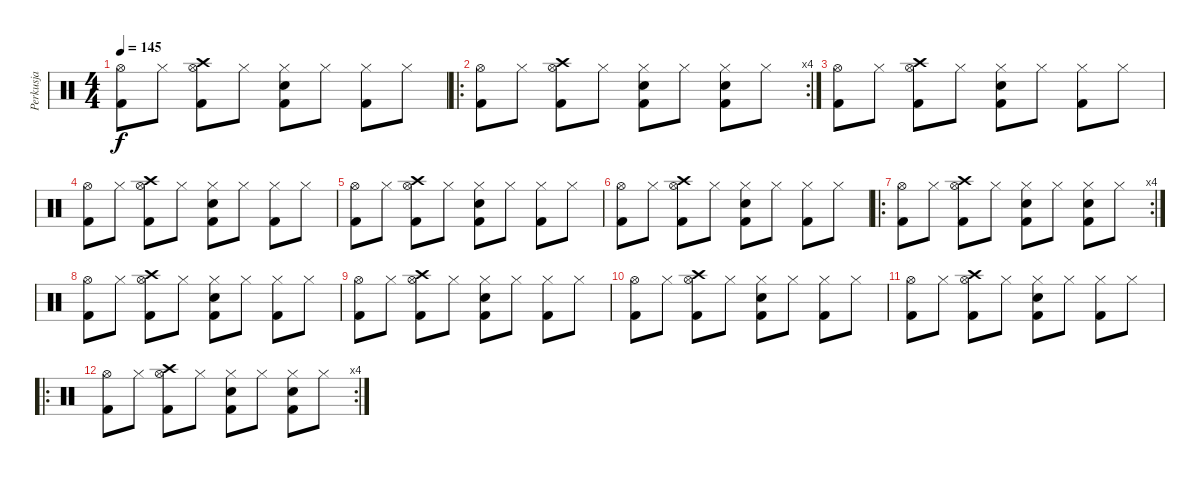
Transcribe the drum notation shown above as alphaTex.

\track ("Perkusja" "Perkusja") {instrument percussion}
\staff {score}
\articulation defaults
\ts (4 4)
\tempo 145
\clef neutral
\ks c
("Hi-Hat (open)" "Kick (hit) 2").8{dy f} "Hi-Hat (closed)".8 ("Hi-Hat (open)" "Crash high (hit)" "Kick (hit) 2").8 "Hi-Hat (closed)".8 ("Hi-Hat (closed)" "Electric Snare (hit)" "Kick (hit) 2").8 "Hi-Hat (closed)".8 ("Hi-Hat (closed)" "Kick (hit) 2").8 "Hi-Hat (closed)".8 |
\ro
\rc 4
("Hi-Hat (open)" "Kick (hit) 2").8 "Hi-Hat (closed)".8 ("Hi-Hat (open)" "Crash high (hit)" "Kick (hit) 2").8 "Hi-Hat (closed)".8 ("Hi-Hat (closed)" "Electric Snare (hit)" "Kick (hit) 2").8 "Hi-Hat (closed)".8 ("Hi-Hat (closed)" "Electric Snare (hit)" "Kick (hit) 2").8 "Hi-Hat (closed)".8 |
("Hi-Hat (open)" "Kick (hit) 2").8 "Hi-Hat (closed)".8 ("Hi-Hat (open)" "Crash high (hit)" "Kick (hit) 2").8 "Hi-Hat (closed)".8 ("Hi-Hat (closed)" "Electric Snare (hit)" "Kick (hit) 2").8 "Hi-Hat (closed)".8 ("Hi-Hat (closed)" "Kick (hit) 2").8 "Hi-Hat (closed)".8 |
("Hi-Hat (open)" "Kick (hit) 2").8 "Hi-Hat (closed)".8 ("Hi-Hat (open)" "Crash high (hit)" "Kick (hit) 2").8 "Hi-Hat (closed)".8 ("Hi-Hat (closed)" "Electric Snare (hit)" "Kick (hit) 2").8 "Hi-Hat (closed)".8 ("Hi-Hat (closed)" "Kick (hit) 2").8 "Hi-Hat (closed)".8 |
("Hi-Hat (open)" "Kick (hit) 2").8 "Hi-Hat (closed)".8 ("Hi-Hat (open)" "Crash high (hit)" "Kick (hit) 2").8 "Hi-Hat (closed)".8 ("Hi-Hat (closed)" "Electric Snare (hit)" "Kick (hit) 2").8 "Hi-Hat (closed)".8 ("Hi-Hat (closed)" "Kick (hit) 2").8 "Hi-Hat (closed)".8 |
("Hi-Hat (open)" "Kick (hit) 2").8 "Hi-Hat (closed)".8 ("Hi-Hat (open)" "Crash high (hit)" "Kick (hit) 2").8 "Hi-Hat (closed)".8 ("Hi-Hat (closed)" "Electric Snare (hit)" "Kick (hit) 2").8 "Hi-Hat (closed)".8 ("Hi-Hat (closed)" "Kick (hit) 2").8 "Hi-Hat (closed)".8 |
\ro
\rc 4
("Hi-Hat (open)" "Kick (hit) 2").8 "Hi-Hat (closed)".8 ("Hi-Hat (open)" "Crash high (hit)" "Kick (hit) 2").8 "Hi-Hat (closed)".8 ("Hi-Hat (closed)" "Electric Snare (hit)" "Kick (hit) 2").8 "Hi-Hat (closed)".8 ("Hi-Hat (closed)" "Electric Snare (hit)" "Kick (hit) 2").8 "Hi-Hat (closed)".8 |
("Hi-Hat (open)" "Kick (hit) 2").8 "Hi-Hat (closed)".8 ("Hi-Hat (open)" "Crash high (hit)" "Kick (hit) 2").8 "Hi-Hat (closed)".8 ("Hi-Hat (closed)" "Electric Snare (hit)" "Kick (hit) 2").8 "Hi-Hat (closed)".8 ("Hi-Hat (closed)" "Kick (hit) 2").8 "Hi-Hat (closed)".8 |
("Hi-Hat (open)" "Kick (hit) 2").8 "Hi-Hat (closed)".8 ("Hi-Hat (open)" "Crash high (hit)" "Kick (hit) 2").8 "Hi-Hat (closed)".8 ("Hi-Hat (closed)" "Electric Snare (hit)" "Kick (hit) 2").8 "Hi-Hat (closed)".8 ("Hi-Hat (closed)" "Kick (hit) 2").8 "Hi-Hat (closed)".8 |
("Hi-Hat (open)" "Kick (hit) 2").8 "Hi-Hat (closed)".8 ("Hi-Hat (open)" "Crash high (hit)" "Kick (hit) 2").8 "Hi-Hat (closed)".8 ("Hi-Hat (closed)" "Electric Snare (hit)" "Kick (hit) 2").8 "Hi-Hat (closed)".8 ("Hi-Hat (closed)" "Kick (hit) 2").8 "Hi-Hat (closed)".8 |
("Hi-Hat (open)" "Kick (hit) 2").8 "Hi-Hat (closed)".8 ("Hi-Hat (open)" "Crash high (hit)" "Kick (hit) 2").8 "Hi-Hat (closed)".8 ("Hi-Hat (closed)" "Electric Snare (hit)" "Kick (hit) 2").8 "Hi-Hat (closed)".8 ("Hi-Hat (closed)" "Kick (hit) 2").8 "Hi-Hat (closed)".8 |
\ro
\rc 4
("Hi-Hat (open)" "Kick (hit) 2").8 "Hi-Hat (closed)".8 ("Hi-Hat (open)" "Crash high (hit)" "Kick (hit) 2").8 "Hi-Hat (closed)".8 ("Hi-Hat (closed)" "Electric Snare (hit)" "Kick (hit) 2").8 "Hi-Hat (closed)".8 ("Hi-Hat (closed)" "Electric Snare (hit)" "Kick (hit) 2").8 "Hi-Hat (closed)".8
